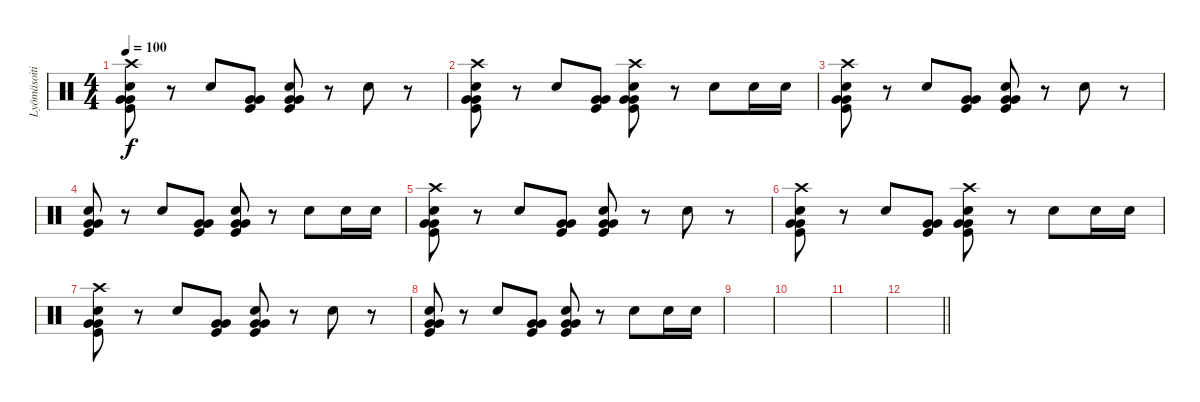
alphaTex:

\track ("Lyömäsoitin" "Lyömäsoiti") {instrument percussion}
\staff {score}
\articulation defaults
\ts (4 4)
\tempo 100
\clef neutral
\ks c
("Crash high (hit)" "Snare (hit) 2" "Very Low Tom (hit)" "Very Low Tom (hit)" "Kick (hit)").8{dy f} r.8 "Snare (hit) 2".8 ("Very Low Tom (hit)" "Very Low Tom (hit)" "Kick (hit)").8 ("Snare (hit) 2" "Very Low Tom (hit)" "Very Low Tom (hit)" "Kick (hit)").8 r.8 "Snare (hit) 2".8 r.8 |
("Crash high (hit)" "Snare (hit) 2" "Very Low Tom (hit)" "Very Low Tom (hit)" "Kick (hit)").8 r.8 "Snare (hit) 2".8 ("Very Low Tom (hit)" "Very Low Tom (hit)" "Kick (hit)").8 ("Crash high (hit)" "Snare (hit) 2" "Very Low Tom (hit)" "Very Low Tom (hit)" "Kick (hit)").8 r.8 "Snare (hit) 2".8 "Snare (hit) 2".16 "Snare (hit) 2".16 |
("Crash high (hit)" "Snare (hit) 2" "Very Low Tom (hit)" "Very Low Tom (hit)" "Kick (hit)").8 r.8 "Snare (hit) 2".8 ("Very Low Tom (hit)" "Very Low Tom (hit)" "Kick (hit)").8 ("Snare (hit) 2" "Very Low Tom (hit)" "Very Low Tom (hit)" "Kick (hit)").8 r.8 "Snare (hit) 2".8 r.8 |
("Snare (hit) 2" "Very Low Tom (hit)" "Very Low Tom (hit)" "Kick (hit)").8 r.8 "Snare (hit) 2".8 ("Very Low Tom (hit)" "Very Low Tom (hit)" "Kick (hit)").8 ("Snare (hit) 2" "Very Low Tom (hit)" "Very Low Tom (hit)" "Kick (hit)").8 r.8 "Snare (hit) 2".8 "Snare (hit) 2".16 "Snare (hit) 2".16 |
("Crash high (hit)" "Snare (hit) 2" "Very Low Tom (hit)" "Very Low Tom (hit)" "Kick (hit)").8{volume 0} r.8 "Snare (hit) 2".8 ("Very Low Tom (hit)" "Very Low Tom (hit)" "Kick (hit)").8 ("Snare (hit) 2" "Very Low Tom (hit)" "Very Low Tom (hit)" "Kick (hit)").8 r.8 "Snare (hit) 2".8 r.8 |
("Crash high (hit)" "Snare (hit) 2" "Very Low Tom (hit)" "Very Low Tom (hit)" "Kick (hit)").8 r.8 "Snare (hit) 2".8 ("Very Low Tom (hit)" "Very Low Tom (hit)" "Kick (hit)").8 ("Crash high (hit)" "Snare (hit) 2" "Very Low Tom (hit)" "Very Low Tom (hit)" "Kick (hit)").8 r.8 "Snare (hit) 2".8 "Snare (hit) 2".16 "Snare (hit) 2".16 |
("Crash high (hit)" "Snare (hit) 2" "Very Low Tom (hit)" "Very Low Tom (hit)" "Kick (hit)").8 r.8 "Snare (hit) 2".8 ("Very Low Tom (hit)" "Very Low Tom (hit)" "Kick (hit)").8 ("Snare (hit) 2" "Very Low Tom (hit)" "Very Low Tom (hit)" "Kick (hit)").8 r.8 "Snare (hit) 2".8 r.8 |
("Snare (hit) 2" "Very Low Tom (hit)" "Very Low Tom (hit)" "Kick (hit)").8 r.8 "Snare (hit) 2".8 ("Very Low Tom (hit)" "Very Low Tom (hit)" "Kick (hit)").8 ("Snare (hit) 2" "Very Low Tom (hit)" "Very Low Tom (hit)" "Kick (hit)").8 r.8 "Snare (hit) 2".8 "Snare (hit) 2".16 "Snare (hit) 2".16 |
|
|
|
\barLineRight lightlight
